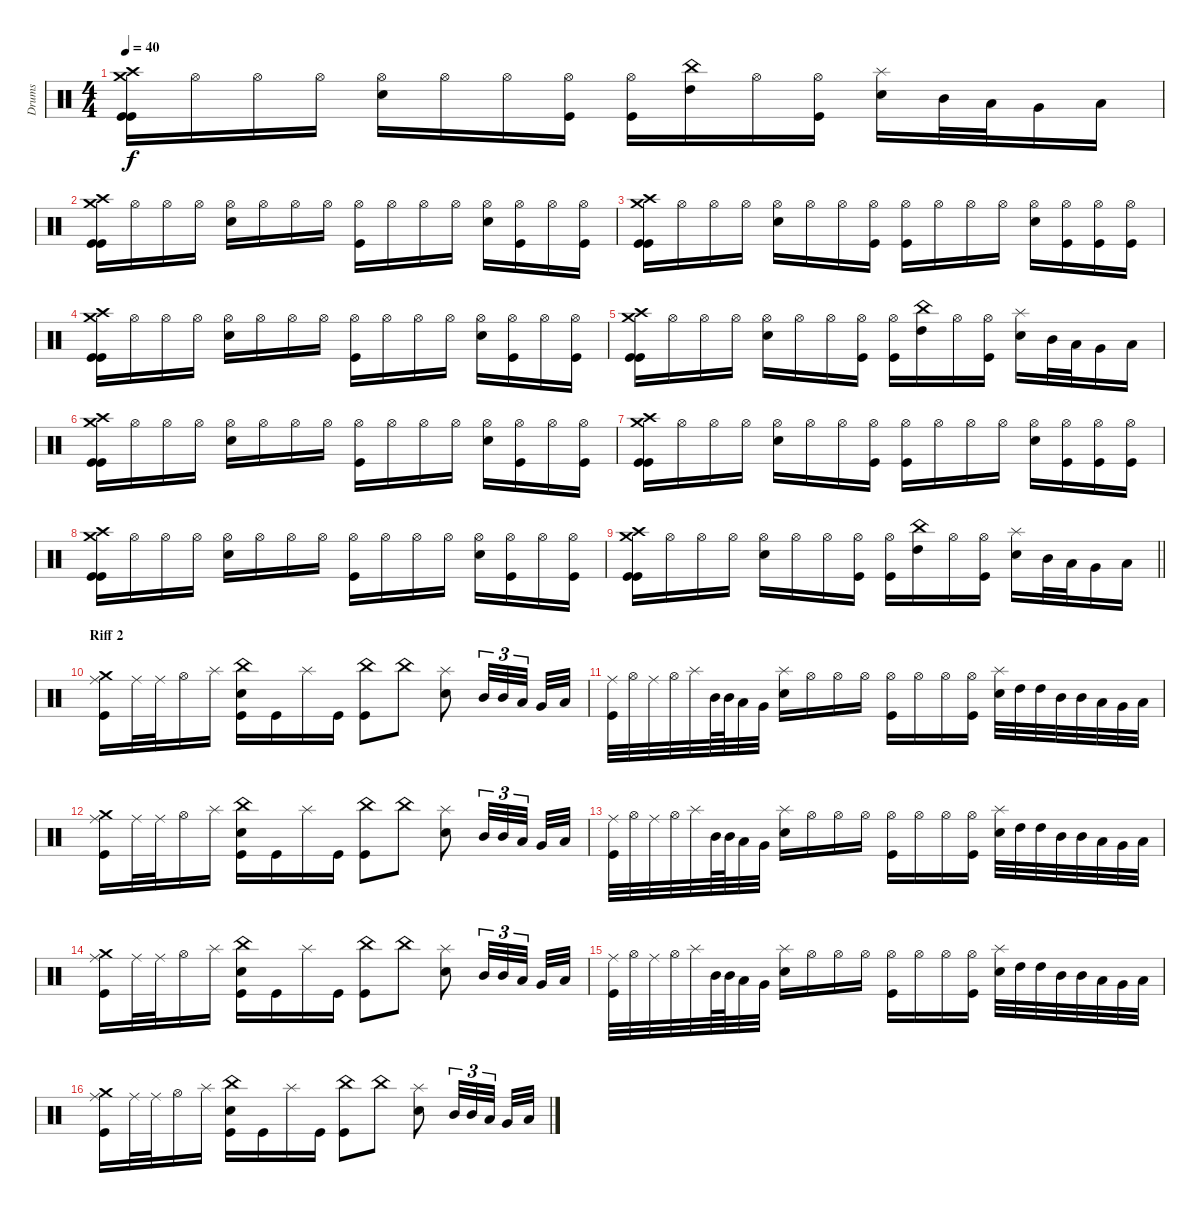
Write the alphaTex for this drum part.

\track ("Drums" "Drums") {instrument percussion}
\staff {score}
\articulation defaults
\ts (4 4)
\tempo 40
\clef neutral
\ks c
("Crash medium (hit)" "Crash high (hit)" "Kick (hit)" "Kick (hit)").16{dy f} "Hi-Hat (open)".16 "Hi-Hat (open)".16 "Hi-Hat (open)".16 ("Hi-Hat (open)" "Snare (hit) 2").16 "Hi-Hat (open)".16 "Hi-Hat (open)".16 ("Hi-Hat (open)" "Kick (hit)").16 ("Hi-Hat (open)" "Kick (hit)").16 ("High Tom (hit)" "China (hit)").16 "Hi-Hat (open)".16 ("Hi-Hat (open)" "Kick (hit)").16 ("Snare (hit) 2" "Splash (hit)").16 "Mid Tom (hit)".32 "Low Tom (hit)".32 "Very Low Tom (hit)".16 "Low Floor Tom (hit)".16 |
("Crash medium (hit)" "Crash high (hit)" "Kick (hit)" "Kick (hit)").16 "Hi-Hat (open)".16 "Hi-Hat (open)".16 "Hi-Hat (open)".16 ("Hi-Hat (open)" "Snare (hit) 2").16 "Hi-Hat (open)".16 "Hi-Hat (open)".16 "Hi-Hat (open)".16 ("Hi-Hat (open)" "Kick (hit)").16 "Hi-Hat (open)".16 "Hi-Hat (open)".16 "Hi-Hat (open)".16 ("Hi-Hat (open)" "Snare (hit) 2").16 ("Hi-Hat (open)" "Kick (hit)").16 "Hi-Hat (open)".16 ("Hi-Hat (open)" "Kick (hit)").16 |
("Crash medium (hit)" "Crash high (hit)" "Kick (hit)" "Kick (hit)").16 "Hi-Hat (open)".16 "Hi-Hat (open)".16 "Hi-Hat (open)".16 ("Hi-Hat (open)" "Snare (hit) 2").16 "Hi-Hat (open)".16 "Hi-Hat (open)".16 ("Hi-Hat (open)" "Kick (hit)").16 ("Hi-Hat (open)" "Kick (hit)").16 "Hi-Hat (open)".16 "Hi-Hat (open)".16 "Hi-Hat (open)".16 ("Hi-Hat (open)" "Snare (hit) 2").16 ("Hi-Hat (open)" "Kick (hit)").16 ("Hi-Hat (open)" "Kick (hit)").16 ("Hi-Hat (open)" "Kick (hit)").16 |
("Crash medium (hit)" "Crash high (hit)" "Kick (hit)" "Kick (hit)").16 "Hi-Hat (open)".16 "Hi-Hat (open)".16 "Hi-Hat (open)".16 ("Hi-Hat (open)" "Snare (hit) 2").16 "Hi-Hat (open)".16 "Hi-Hat (open)".16 "Hi-Hat (open)".16 ("Hi-Hat (open)" "Kick (hit)").16 "Hi-Hat (open)".16 "Hi-Hat (open)".16 "Hi-Hat (open)".16 ("Hi-Hat (open)" "Snare (hit) 2").16 ("Hi-Hat (open)" "Kick (hit)").16 "Hi-Hat (open)".16 ("Hi-Hat (open)" "Kick (hit)").16 |
("Crash medium (hit)" "Crash high (hit)" "Kick (hit)" "Kick (hit)").16 "Hi-Hat (open)".16 "Hi-Hat (open)".16 "Hi-Hat (open)".16 ("Hi-Hat (open)" "Snare (hit) 2").16 "Hi-Hat (open)".16 "Hi-Hat (open)".16 ("Hi-Hat (open)" "Kick (hit)").16 ("Hi-Hat (open)" "Kick (hit)").16 ("High Tom (hit)" "China (hit)").16 "Hi-Hat (open)".16 ("Hi-Hat (open)" "Kick (hit)").16 ("Snare (hit) 2" "Splash (hit)").16 "Mid Tom (hit)".32 "Low Tom (hit)".32 "Very Low Tom (hit)".16 "Low Floor Tom (hit)".16 |
("Crash medium (hit)" "Crash high (hit)" "Kick (hit)" "Kick (hit)").16 "Hi-Hat (open)".16 "Hi-Hat (open)".16 "Hi-Hat (open)".16 ("Hi-Hat (open)" "Snare (hit) 2").16 "Hi-Hat (open)".16 "Hi-Hat (open)".16 "Hi-Hat (open)".16 ("Hi-Hat (open)" "Kick (hit)").16 "Hi-Hat (open)".16 "Hi-Hat (open)".16 "Hi-Hat (open)".16 ("Hi-Hat (open)" "Snare (hit) 2").16 ("Hi-Hat (open)" "Kick (hit)").16 "Hi-Hat (open)".16 ("Hi-Hat (open)" "Kick (hit)").16 |
("Crash medium (hit)" "Crash high (hit)" "Kick (hit)" "Kick (hit)").16 "Hi-Hat (open)".16 "Hi-Hat (open)".16 "Hi-Hat (open)".16 ("Hi-Hat (open)" "Snare (hit) 2").16 "Hi-Hat (open)".16 "Hi-Hat (open)".16 ("Hi-Hat (open)" "Kick (hit)").16 ("Hi-Hat (open)" "Kick (hit)").16 "Hi-Hat (open)".16 "Hi-Hat (open)".16 "Hi-Hat (open)".16 ("Hi-Hat (open)" "Snare (hit) 2").16 ("Hi-Hat (open)" "Kick (hit)").16 ("Hi-Hat (open)" "Kick (hit)").16 ("Hi-Hat (open)" "Kick (hit)").16 |
("Crash medium (hit)" "Crash high (hit)" "Kick (hit)" "Kick (hit)").16 "Hi-Hat (open)".16 "Hi-Hat (open)".16 "Hi-Hat (open)".16 ("Hi-Hat (open)" "Snare (hit) 2").16 "Hi-Hat (open)".16 "Hi-Hat (open)".16 "Hi-Hat (open)".16 ("Hi-Hat (open)" "Kick (hit)").16 "Hi-Hat (open)".16 "Hi-Hat (open)".16 "Hi-Hat (open)".16 ("Hi-Hat (open)" "Snare (hit) 2").16 ("Hi-Hat (open)" "Kick (hit)").16 "Hi-Hat (open)".16 ("Hi-Hat (open)" "Kick (hit)").16 |
\barLineRight lightlight
("Crash medium (hit)" "Crash high (hit)" "Kick (hit)" "Kick (hit)").16 "Hi-Hat (open)".16 "Hi-Hat (open)".16 "Hi-Hat (open)".16 ("Hi-Hat (open)" "Snare (hit) 2").16 "Hi-Hat (open)".16 "Hi-Hat (open)".16 ("Hi-Hat (open)" "Kick (hit)").16 ("Hi-Hat (open)" "Kick (hit)").16 ("High Tom (hit)" "China (hit)").16 "Hi-Hat (open)".16 ("Hi-Hat (open)" "Kick (hit)").16 ("Snare (hit) 2" "Splash (hit)").16 "Mid Tom (hit)".32 "Low Tom (hit)".32 "Very Low Tom (hit)".16 "Low Floor Tom (hit)".16 |
\section ("" "Riff 2")
("Crash medium (hit)" "Kick (hit)" "Ride (middle)").16 "Ride (middle)".32 "Ride (middle)".32 "Hi-Hat (open)".16 "Splash (hit)".16 ("China (hit)" "Snare (hit) 2" "Kick (hit)").16 "Kick (hit)".16 "Splash (hit)".16 "Kick (hit)".16 ("China (hit)" "Kick (hit)").8 "China (hit)".8 ("Snare (hit) 2" "Splash (hit)").8 "Mid Tom (hit)".32{tu (3 2)} "Mid Tom (hit)".32{tu (3 2)} "Low Tom (hit)".32{tu (3 2) beam splitsecondary} "Very Low Tom (hit)".32 "Low Floor Tom (hit)".32 |
("Kick (hit)" "Ride (middle)").32 "Hi-Hat (open)".32 "Ride (middle)".32 "Hi-Hat (open)".32 "Splash (hit)".32 "Mid Tom (hit)".64 "Mid Tom (hit)".64 "Low Tom (hit)".32 "Very Low Tom (hit)".32 ("Snare (hit) 2" "Splash (hit)").16 "Hi-Hat (open)".16 "Hi-Hat (open)".16 "Hi-Hat (open)".16 ("Hi-Hat (open)" "Kick (hit)").16 "Hi-Hat (open)".16 "Hi-Hat (open)".16 ("Kick (hit)" "Hi-Hat (open)").16 ("Splash (hit)" "Snare (hit) 2").32 "High Tom (hit)".32 "High Tom (hit)".32 "Mid Tom (hit)".32 "Mid Tom (hit)".32 "Low Tom (hit)".32 "Very Low Tom (hit)".32 "Low Floor Tom (hit)".32 |
("Crash medium (hit)" "Kick (hit)" "Ride (middle)").16 "Ride (middle)".32 "Ride (middle)".32 "Hi-Hat (open)".16 "Splash (hit)".16 ("China (hit)" "Snare (hit) 2" "Kick (hit)").16 "Kick (hit)".16 "Splash (hit)".16 "Kick (hit)".16 ("China (hit)" "Kick (hit)").8 "China (hit)".8 ("Snare (hit) 2" "Splash (hit)").8 "Mid Tom (hit)".32{tu (3 2)} "Mid Tom (hit)".32{tu (3 2)} "Low Tom (hit)".32{tu (3 2) beam splitsecondary} "Very Low Tom (hit)".32 "Low Floor Tom (hit)".32 |
("Kick (hit)" "Ride (middle)").32 "Hi-Hat (open)".32 "Ride (middle)".32 "Hi-Hat (open)".32 "Splash (hit)".32 "Mid Tom (hit)".64 "Mid Tom (hit)".64 "Low Tom (hit)".32 "Very Low Tom (hit)".32 ("Snare (hit) 2" "Splash (hit)").16 "Hi-Hat (open)".16 "Hi-Hat (open)".16 "Hi-Hat (open)".16 ("Hi-Hat (open)" "Kick (hit)").16 "Hi-Hat (open)".16 "Hi-Hat (open)".16 ("Kick (hit)" "Hi-Hat (open)").16 ("Splash (hit)" "Snare (hit) 2").32 "High Tom (hit)".32 "High Tom (hit)".32 "Mid Tom (hit)".32 "Mid Tom (hit)".32 "Low Tom (hit)".32 "Very Low Tom (hit)".32 "Low Floor Tom (hit)".32 |
("Crash medium (hit)" "Kick (hit)" "Ride (middle)").16 "Ride (middle)".32 "Ride (middle)".32 "Hi-Hat (open)".16 "Splash (hit)".16 ("China (hit)" "Snare (hit) 2" "Kick (hit)").16 "Kick (hit)".16 "Splash (hit)".16 "Kick (hit)".16 ("China (hit)" "Kick (hit)").8 "China (hit)".8 ("Snare (hit) 2" "Splash (hit)").8 "Mid Tom (hit)".32{tu (3 2)} "Mid Tom (hit)".32{tu (3 2)} "Low Tom (hit)".32{tu (3 2) beam splitsecondary} "Very Low Tom (hit)".32 "Low Floor Tom (hit)".32 |
("Kick (hit)" "Ride (middle)").32 "Hi-Hat (open)".32 "Ride (middle)".32 "Hi-Hat (open)".32 "Splash (hit)".32 "Mid Tom (hit)".64 "Mid Tom (hit)".64 "Low Tom (hit)".32 "Very Low Tom (hit)".32 ("Snare (hit) 2" "Splash (hit)").16 "Hi-Hat (open)".16 "Hi-Hat (open)".16 "Hi-Hat (open)".16 ("Hi-Hat (open)" "Kick (hit)").16 "Hi-Hat (open)".16 "Hi-Hat (open)".16 ("Kick (hit)" "Hi-Hat (open)").16 ("Splash (hit)" "Snare (hit) 2").32 "High Tom (hit)".32 "High Tom (hit)".32 "Mid Tom (hit)".32 "Mid Tom (hit)".32 "Low Tom (hit)".32 "Very Low Tom (hit)".32 "Low Floor Tom (hit)".32 |
("Crash medium (hit)" "Kick (hit)" "Ride (middle)").16 "Ride (middle)".32 "Ride (middle)".32 "Hi-Hat (open)".16 "Splash (hit)".16 ("China (hit)" "Snare (hit) 2" "Kick (hit)").16 "Kick (hit)".16 "Splash (hit)".16 "Kick (hit)".16 ("China (hit)" "Kick (hit)").8 "China (hit)".8 ("Snare (hit) 2" "Splash (hit)").8 "Mid Tom (hit)".32{tu (3 2)} "Mid Tom (hit)".32{tu (3 2)} "Low Tom (hit)".32{tu (3 2) beam splitsecondary} "Very Low Tom (hit)".32 "Low Floor Tom (hit)".32
